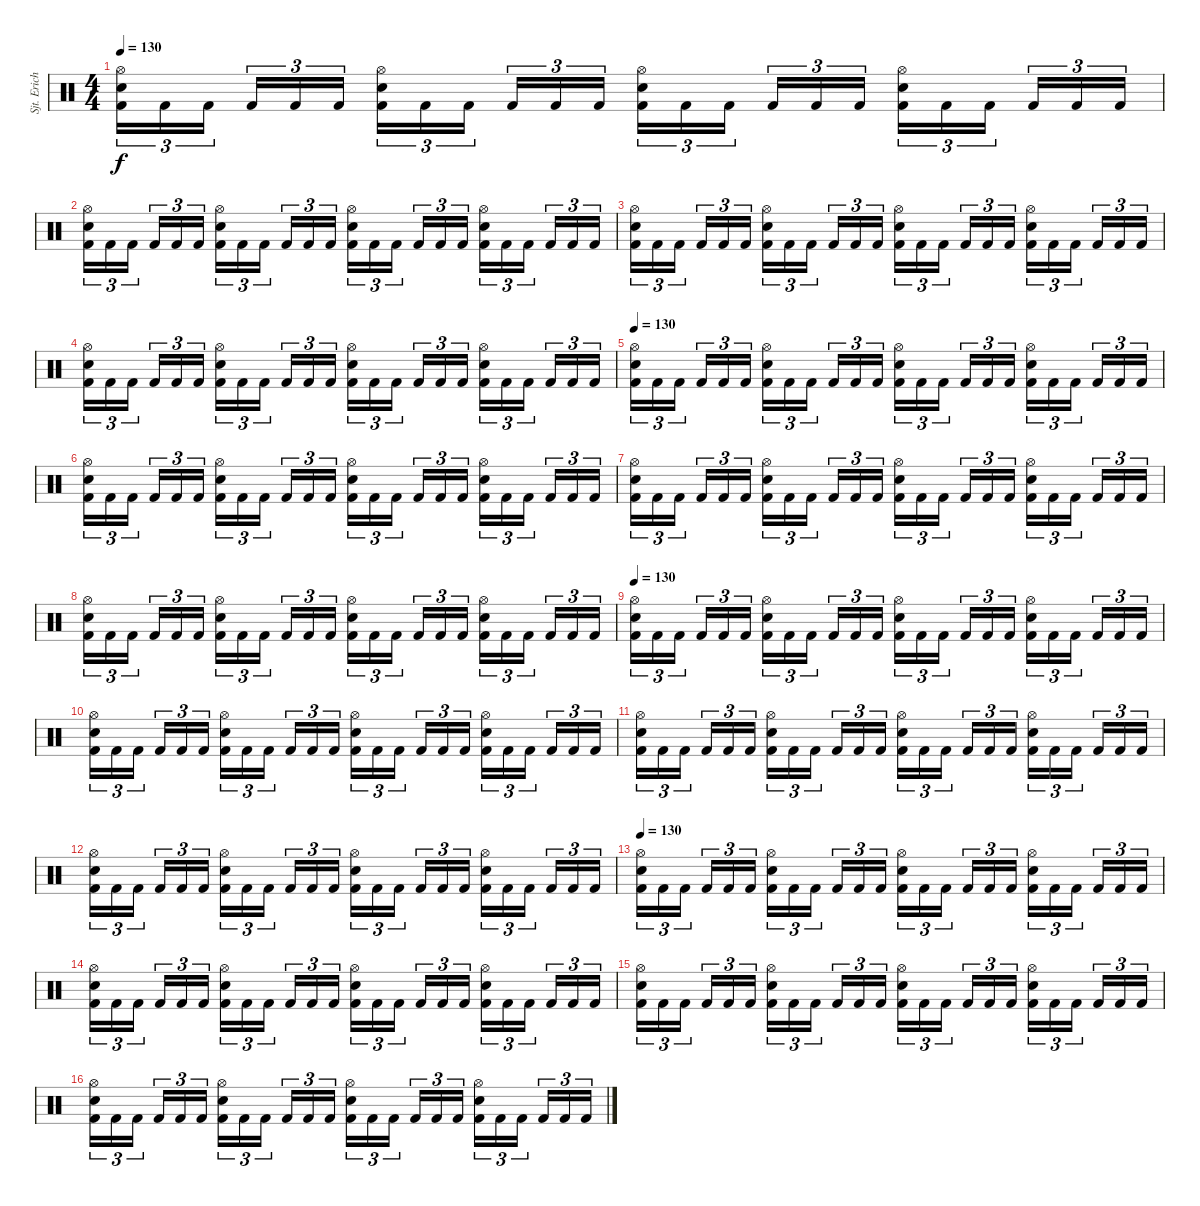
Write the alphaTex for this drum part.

\track ("Sjt. Erichsen" "Sjt. Erich") {instrument percussion}
\staff {score}
\articulation defaults
\ts (4 4)
\tempo 130
\clef neutral
\ks c
("Hi-Hat (open)" "Electric Snare (hit)" "Kick (hit) 2").16{tu (3 2) dy f} "Kick (hit) 2".16{tu (3 2)} "Kick (hit) 2".16{tu (3 2) beam splitsecondary} "Kick (hit) 2".16{tu (3 2)} "Kick (hit) 2".16{tu (3 2)} "Kick (hit) 2".16{tu (3 2)} ("Hi-Hat (open)" "Electric Snare (hit)" "Kick (hit) 2").16{tu (3 2)} "Kick (hit) 2".16{tu (3 2)} "Kick (hit) 2".16{tu (3 2) beam splitsecondary} "Kick (hit) 2".16{tu (3 2)} "Kick (hit) 2".16{tu (3 2)} "Kick (hit) 2".16{tu (3 2)} ("Hi-Hat (open)" "Electric Snare (hit)" "Kick (hit) 2").16{tu (3 2)} "Kick (hit) 2".16{tu (3 2)} "Kick (hit) 2".16{tu (3 2) beam splitsecondary} "Kick (hit) 2".16{tu (3 2)} "Kick (hit) 2".16{tu (3 2)} "Kick (hit) 2".16{tu (3 2)} ("Hi-Hat (open)" "Electric Snare (hit)" "Kick (hit) 2").16{tu (3 2)} "Kick (hit) 2".16{tu (3 2)} "Kick (hit) 2".16{tu (3 2) beam splitsecondary} "Kick (hit) 2".16{tu (3 2)} "Kick (hit) 2".16{tu (3 2)} "Kick (hit) 2".16{tu (3 2)} |
("Hi-Hat (open)" "Electric Snare (hit)" "Kick (hit) 2").16{tu (3 2)} "Kick (hit) 2".16{tu (3 2)} "Kick (hit) 2".16{tu (3 2) beam splitsecondary} "Kick (hit) 2".16{tu (3 2)} "Kick (hit) 2".16{tu (3 2)} "Kick (hit) 2".16{tu (3 2)} ("Hi-Hat (open)" "Electric Snare (hit)" "Kick (hit) 2").16{tu (3 2)} "Kick (hit) 2".16{tu (3 2)} "Kick (hit) 2".16{tu (3 2) beam splitsecondary} "Kick (hit) 2".16{tu (3 2)} "Kick (hit) 2".16{tu (3 2)} "Kick (hit) 2".16{tu (3 2)} ("Hi-Hat (open)" "Electric Snare (hit)" "Kick (hit) 2").16{tu (3 2)} "Kick (hit) 2".16{tu (3 2)} "Kick (hit) 2".16{tu (3 2) beam splitsecondary} "Kick (hit) 2".16{tu (3 2)} "Kick (hit) 2".16{tu (3 2)} "Kick (hit) 2".16{tu (3 2)} ("Hi-Hat (open)" "Electric Snare (hit)" "Kick (hit) 2").16{tu (3 2)} "Kick (hit) 2".16{tu (3 2)} "Kick (hit) 2".16{tu (3 2) beam splitsecondary} "Kick (hit) 2".16{tu (3 2)} "Kick (hit) 2".16{tu (3 2)} "Kick (hit) 2".16{tu (3 2)} |
("Hi-Hat (open)" "Electric Snare (hit)" "Kick (hit) 2").16{tu (3 2)} "Kick (hit) 2".16{tu (3 2)} "Kick (hit) 2".16{tu (3 2) beam splitsecondary} "Kick (hit) 2".16{tu (3 2)} "Kick (hit) 2".16{tu (3 2)} "Kick (hit) 2".16{tu (3 2)} ("Hi-Hat (open)" "Electric Snare (hit)" "Kick (hit) 2").16{tu (3 2)} "Kick (hit) 2".16{tu (3 2)} "Kick (hit) 2".16{tu (3 2) beam splitsecondary} "Kick (hit) 2".16{tu (3 2)} "Kick (hit) 2".16{tu (3 2)} "Kick (hit) 2".16{tu (3 2)} ("Hi-Hat (open)" "Electric Snare (hit)" "Kick (hit) 2").16{tu (3 2)} "Kick (hit) 2".16{tu (3 2)} "Kick (hit) 2".16{tu (3 2) beam splitsecondary} "Kick (hit) 2".16{tu (3 2)} "Kick (hit) 2".16{tu (3 2)} "Kick (hit) 2".16{tu (3 2)} ("Hi-Hat (open)" "Electric Snare (hit)" "Kick (hit) 2").16{tu (3 2)} "Kick (hit) 2".16{tu (3 2)} "Kick (hit) 2".16{tu (3 2) beam splitsecondary} "Kick (hit) 2".16{tu (3 2)} "Kick (hit) 2".16{tu (3 2)} "Kick (hit) 2".16{tu (3 2)} |
("Hi-Hat (open)" "Electric Snare (hit)" "Kick (hit) 2").16{tu (3 2)} "Kick (hit) 2".16{tu (3 2)} "Kick (hit) 2".16{tu (3 2) beam splitsecondary} "Kick (hit) 2".16{tu (3 2)} "Kick (hit) 2".16{tu (3 2)} "Kick (hit) 2".16{tu (3 2)} ("Hi-Hat (open)" "Electric Snare (hit)" "Kick (hit) 2").16{tu (3 2)} "Kick (hit) 2".16{tu (3 2)} "Kick (hit) 2".16{tu (3 2) beam splitsecondary} "Kick (hit) 2".16{tu (3 2)} "Kick (hit) 2".16{tu (3 2)} "Kick (hit) 2".16{tu (3 2)} ("Hi-Hat (open)" "Electric Snare (hit)" "Kick (hit) 2").16{tu (3 2)} "Kick (hit) 2".16{tu (3 2)} "Kick (hit) 2".16{tu (3 2) beam splitsecondary} "Kick (hit) 2".16{tu (3 2)} "Kick (hit) 2".16{tu (3 2)} "Kick (hit) 2".16{tu (3 2)} ("Hi-Hat (open)" "Electric Snare (hit)" "Kick (hit) 2").16{tu (3 2)} "Kick (hit) 2".16{tu (3 2)} "Kick (hit) 2".16{tu (3 2) beam splitsecondary} "Kick (hit) 2".16{tu (3 2)} "Kick (hit) 2".16{tu (3 2)} "Kick (hit) 2".16{tu (3 2)} |
\tempo 130
("Hi-Hat (open)" "Electric Snare (hit)" "Kick (hit) 2").16{tu (3 2)} "Kick (hit) 2".16{tu (3 2)} "Kick (hit) 2".16{tu (3 2) beam splitsecondary} "Kick (hit) 2".16{tu (3 2)} "Kick (hit) 2".16{tu (3 2)} "Kick (hit) 2".16{tu (3 2)} ("Hi-Hat (open)" "Electric Snare (hit)" "Kick (hit) 2").16{tu (3 2)} "Kick (hit) 2".16{tu (3 2)} "Kick (hit) 2".16{tu (3 2) beam splitsecondary} "Kick (hit) 2".16{tu (3 2)} "Kick (hit) 2".16{tu (3 2)} "Kick (hit) 2".16{tu (3 2)} ("Hi-Hat (open)" "Electric Snare (hit)" "Kick (hit) 2").16{tu (3 2)} "Kick (hit) 2".16{tu (3 2)} "Kick (hit) 2".16{tu (3 2) beam splitsecondary} "Kick (hit) 2".16{tu (3 2)} "Kick (hit) 2".16{tu (3 2)} "Kick (hit) 2".16{tu (3 2)} ("Hi-Hat (open)" "Electric Snare (hit)" "Kick (hit) 2").16{tu (3 2)} "Kick (hit) 2".16{tu (3 2)} "Kick (hit) 2".16{tu (3 2) beam splitsecondary} "Kick (hit) 2".16{tu (3 2)} "Kick (hit) 2".16{tu (3 2)} "Kick (hit) 2".16{tu (3 2)} |
("Hi-Hat (open)" "Electric Snare (hit)" "Kick (hit) 2").16{tu (3 2)} "Kick (hit) 2".16{tu (3 2)} "Kick (hit) 2".16{tu (3 2) beam splitsecondary} "Kick (hit) 2".16{tu (3 2)} "Kick (hit) 2".16{tu (3 2)} "Kick (hit) 2".16{tu (3 2)} ("Hi-Hat (open)" "Electric Snare (hit)" "Kick (hit) 2").16{tu (3 2)} "Kick (hit) 2".16{tu (3 2)} "Kick (hit) 2".16{tu (3 2) beam splitsecondary} "Kick (hit) 2".16{tu (3 2)} "Kick (hit) 2".16{tu (3 2)} "Kick (hit) 2".16{tu (3 2)} ("Hi-Hat (open)" "Electric Snare (hit)" "Kick (hit) 2").16{tu (3 2)} "Kick (hit) 2".16{tu (3 2)} "Kick (hit) 2".16{tu (3 2) beam splitsecondary} "Kick (hit) 2".16{tu (3 2)} "Kick (hit) 2".16{tu (3 2)} "Kick (hit) 2".16{tu (3 2)} ("Hi-Hat (open)" "Electric Snare (hit)" "Kick (hit) 2").16{tu (3 2)} "Kick (hit) 2".16{tu (3 2)} "Kick (hit) 2".16{tu (3 2) beam splitsecondary} "Kick (hit) 2".16{tu (3 2)} "Kick (hit) 2".16{tu (3 2)} "Kick (hit) 2".16{tu (3 2)} |
("Hi-Hat (open)" "Electric Snare (hit)" "Kick (hit) 2").16{tu (3 2)} "Kick (hit) 2".16{tu (3 2)} "Kick (hit) 2".16{tu (3 2) beam splitsecondary} "Kick (hit) 2".16{tu (3 2)} "Kick (hit) 2".16{tu (3 2)} "Kick (hit) 2".16{tu (3 2)} ("Hi-Hat (open)" "Electric Snare (hit)" "Kick (hit) 2").16{tu (3 2)} "Kick (hit) 2".16{tu (3 2)} "Kick (hit) 2".16{tu (3 2) beam splitsecondary} "Kick (hit) 2".16{tu (3 2)} "Kick (hit) 2".16{tu (3 2)} "Kick (hit) 2".16{tu (3 2)} ("Hi-Hat (open)" "Electric Snare (hit)" "Kick (hit) 2").16{tu (3 2)} "Kick (hit) 2".16{tu (3 2)} "Kick (hit) 2".16{tu (3 2) beam splitsecondary} "Kick (hit) 2".16{tu (3 2)} "Kick (hit) 2".16{tu (3 2)} "Kick (hit) 2".16{tu (3 2)} ("Hi-Hat (open)" "Electric Snare (hit)" "Kick (hit) 2").16{tu (3 2)} "Kick (hit) 2".16{tu (3 2)} "Kick (hit) 2".16{tu (3 2) beam splitsecondary} "Kick (hit) 2".16{tu (3 2)} "Kick (hit) 2".16{tu (3 2)} "Kick (hit) 2".16{tu (3 2)} |
("Hi-Hat (open)" "Electric Snare (hit)" "Kick (hit) 2").16{tu (3 2)} "Kick (hit) 2".16{tu (3 2)} "Kick (hit) 2".16{tu (3 2) beam splitsecondary} "Kick (hit) 2".16{tu (3 2)} "Kick (hit) 2".16{tu (3 2)} "Kick (hit) 2".16{tu (3 2)} ("Hi-Hat (open)" "Electric Snare (hit)" "Kick (hit) 2").16{tu (3 2)} "Kick (hit) 2".16{tu (3 2)} "Kick (hit) 2".16{tu (3 2) beam splitsecondary} "Kick (hit) 2".16{tu (3 2)} "Kick (hit) 2".16{tu (3 2)} "Kick (hit) 2".16{tu (3 2)} ("Hi-Hat (open)" "Electric Snare (hit)" "Kick (hit) 2").16{tu (3 2)} "Kick (hit) 2".16{tu (3 2)} "Kick (hit) 2".16{tu (3 2) beam splitsecondary} "Kick (hit) 2".16{tu (3 2)} "Kick (hit) 2".16{tu (3 2)} "Kick (hit) 2".16{tu (3 2)} ("Hi-Hat (open)" "Electric Snare (hit)" "Kick (hit) 2").16{tu (3 2)} "Kick (hit) 2".16{tu (3 2)} "Kick (hit) 2".16{tu (3 2) beam splitsecondary} "Kick (hit) 2".16{tu (3 2)} "Kick (hit) 2".16{tu (3 2)} "Kick (hit) 2".16{tu (3 2)} |
\tempo 130
("Hi-Hat (open)" "Electric Snare (hit)" "Kick (hit) 2").16{tu (3 2)} "Kick (hit) 2".16{tu (3 2)} "Kick (hit) 2".16{tu (3 2) beam splitsecondary} "Kick (hit) 2".16{tu (3 2)} "Kick (hit) 2".16{tu (3 2)} "Kick (hit) 2".16{tu (3 2)} ("Hi-Hat (open)" "Electric Snare (hit)" "Kick (hit) 2").16{tu (3 2)} "Kick (hit) 2".16{tu (3 2)} "Kick (hit) 2".16{tu (3 2) beam splitsecondary} "Kick (hit) 2".16{tu (3 2)} "Kick (hit) 2".16{tu (3 2)} "Kick (hit) 2".16{tu (3 2)} ("Hi-Hat (open)" "Electric Snare (hit)" "Kick (hit) 2").16{tu (3 2)} "Kick (hit) 2".16{tu (3 2)} "Kick (hit) 2".16{tu (3 2) beam splitsecondary} "Kick (hit) 2".16{tu (3 2)} "Kick (hit) 2".16{tu (3 2)} "Kick (hit) 2".16{tu (3 2)} ("Hi-Hat (open)" "Electric Snare (hit)" "Kick (hit) 2").16{tu (3 2)} "Kick (hit) 2".16{tu (3 2)} "Kick (hit) 2".16{tu (3 2) beam splitsecondary} "Kick (hit) 2".16{tu (3 2)} "Kick (hit) 2".16{tu (3 2)} "Kick (hit) 2".16{tu (3 2)} |
("Hi-Hat (open)" "Electric Snare (hit)" "Kick (hit) 2").16{tu (3 2)} "Kick (hit) 2".16{tu (3 2)} "Kick (hit) 2".16{tu (3 2) beam splitsecondary} "Kick (hit) 2".16{tu (3 2)} "Kick (hit) 2".16{tu (3 2)} "Kick (hit) 2".16{tu (3 2)} ("Hi-Hat (open)" "Electric Snare (hit)" "Kick (hit) 2").16{tu (3 2)} "Kick (hit) 2".16{tu (3 2)} "Kick (hit) 2".16{tu (3 2) beam splitsecondary} "Kick (hit) 2".16{tu (3 2)} "Kick (hit) 2".16{tu (3 2)} "Kick (hit) 2".16{tu (3 2)} ("Hi-Hat (open)" "Electric Snare (hit)" "Kick (hit) 2").16{tu (3 2)} "Kick (hit) 2".16{tu (3 2)} "Kick (hit) 2".16{tu (3 2) beam splitsecondary} "Kick (hit) 2".16{tu (3 2)} "Kick (hit) 2".16{tu (3 2)} "Kick (hit) 2".16{tu (3 2)} ("Hi-Hat (open)" "Electric Snare (hit)" "Kick (hit) 2").16{tu (3 2)} "Kick (hit) 2".16{tu (3 2)} "Kick (hit) 2".16{tu (3 2) beam splitsecondary} "Kick (hit) 2".16{tu (3 2)} "Kick (hit) 2".16{tu (3 2)} "Kick (hit) 2".16{tu (3 2)} |
("Hi-Hat (open)" "Electric Snare (hit)" "Kick (hit) 2").16{tu (3 2)} "Kick (hit) 2".16{tu (3 2)} "Kick (hit) 2".16{tu (3 2) beam splitsecondary} "Kick (hit) 2".16{tu (3 2)} "Kick (hit) 2".16{tu (3 2)} "Kick (hit) 2".16{tu (3 2)} ("Hi-Hat (open)" "Electric Snare (hit)" "Kick (hit) 2").16{tu (3 2)} "Kick (hit) 2".16{tu (3 2)} "Kick (hit) 2".16{tu (3 2) beam splitsecondary} "Kick (hit) 2".16{tu (3 2)} "Kick (hit) 2".16{tu (3 2)} "Kick (hit) 2".16{tu (3 2)} ("Hi-Hat (open)" "Electric Snare (hit)" "Kick (hit) 2").16{tu (3 2)} "Kick (hit) 2".16{tu (3 2)} "Kick (hit) 2".16{tu (3 2) beam splitsecondary} "Kick (hit) 2".16{tu (3 2)} "Kick (hit) 2".16{tu (3 2)} "Kick (hit) 2".16{tu (3 2)} ("Hi-Hat (open)" "Electric Snare (hit)" "Kick (hit) 2").16{tu (3 2)} "Kick (hit) 2".16{tu (3 2)} "Kick (hit) 2".16{tu (3 2) beam splitsecondary} "Kick (hit) 2".16{tu (3 2)} "Kick (hit) 2".16{tu (3 2)} "Kick (hit) 2".16{tu (3 2)} |
("Hi-Hat (open)" "Electric Snare (hit)" "Kick (hit) 2").16{tu (3 2)} "Kick (hit) 2".16{tu (3 2)} "Kick (hit) 2".16{tu (3 2) beam splitsecondary} "Kick (hit) 2".16{tu (3 2)} "Kick (hit) 2".16{tu (3 2)} "Kick (hit) 2".16{tu (3 2)} ("Hi-Hat (open)" "Electric Snare (hit)" "Kick (hit) 2").16{tu (3 2)} "Kick (hit) 2".16{tu (3 2)} "Kick (hit) 2".16{tu (3 2) beam splitsecondary} "Kick (hit) 2".16{tu (3 2)} "Kick (hit) 2".16{tu (3 2)} "Kick (hit) 2".16{tu (3 2)} ("Hi-Hat (open)" "Electric Snare (hit)" "Kick (hit) 2").16{tu (3 2)} "Kick (hit) 2".16{tu (3 2)} "Kick (hit) 2".16{tu (3 2) beam splitsecondary} "Kick (hit) 2".16{tu (3 2)} "Kick (hit) 2".16{tu (3 2)} "Kick (hit) 2".16{tu (3 2)} ("Hi-Hat (open)" "Electric Snare (hit)" "Kick (hit) 2").16{tu (3 2)} "Kick (hit) 2".16{tu (3 2)} "Kick (hit) 2".16{tu (3 2) beam splitsecondary} "Kick (hit) 2".16{tu (3 2)} "Kick (hit) 2".16{tu (3 2)} "Kick (hit) 2".16{tu (3 2)} |
\tempo 130
("Hi-Hat (open)" "Electric Snare (hit)" "Kick (hit) 2").16{tu (3 2)} "Kick (hit) 2".16{tu (3 2)} "Kick (hit) 2".16{tu (3 2) beam splitsecondary} "Kick (hit) 2".16{tu (3 2)} "Kick (hit) 2".16{tu (3 2)} "Kick (hit) 2".16{tu (3 2)} ("Hi-Hat (open)" "Electric Snare (hit)" "Kick (hit) 2").16{tu (3 2)} "Kick (hit) 2".16{tu (3 2)} "Kick (hit) 2".16{tu (3 2) beam splitsecondary} "Kick (hit) 2".16{tu (3 2)} "Kick (hit) 2".16{tu (3 2)} "Kick (hit) 2".16{tu (3 2)} ("Hi-Hat (open)" "Electric Snare (hit)" "Kick (hit) 2").16{tu (3 2)} "Kick (hit) 2".16{tu (3 2)} "Kick (hit) 2".16{tu (3 2) beam splitsecondary} "Kick (hit) 2".16{tu (3 2)} "Kick (hit) 2".16{tu (3 2)} "Kick (hit) 2".16{tu (3 2)} ("Hi-Hat (open)" "Electric Snare (hit)" "Kick (hit) 2").16{tu (3 2)} "Kick (hit) 2".16{tu (3 2)} "Kick (hit) 2".16{tu (3 2) beam splitsecondary} "Kick (hit) 2".16{tu (3 2)} "Kick (hit) 2".16{tu (3 2)} "Kick (hit) 2".16{tu (3 2)} |
("Hi-Hat (open)" "Electric Snare (hit)" "Kick (hit) 2").16{tu (3 2)} "Kick (hit) 2".16{tu (3 2)} "Kick (hit) 2".16{tu (3 2) beam splitsecondary} "Kick (hit) 2".16{tu (3 2)} "Kick (hit) 2".16{tu (3 2)} "Kick (hit) 2".16{tu (3 2)} ("Hi-Hat (open)" "Electric Snare (hit)" "Kick (hit) 2").16{tu (3 2)} "Kick (hit) 2".16{tu (3 2)} "Kick (hit) 2".16{tu (3 2) beam splitsecondary} "Kick (hit) 2".16{tu (3 2)} "Kick (hit) 2".16{tu (3 2)} "Kick (hit) 2".16{tu (3 2)} ("Hi-Hat (open)" "Electric Snare (hit)" "Kick (hit) 2").16{tu (3 2)} "Kick (hit) 2".16{tu (3 2)} "Kick (hit) 2".16{tu (3 2) beam splitsecondary} "Kick (hit) 2".16{tu (3 2)} "Kick (hit) 2".16{tu (3 2)} "Kick (hit) 2".16{tu (3 2)} ("Hi-Hat (open)" "Electric Snare (hit)" "Kick (hit) 2").16{tu (3 2)} "Kick (hit) 2".16{tu (3 2)} "Kick (hit) 2".16{tu (3 2) beam splitsecondary} "Kick (hit) 2".16{tu (3 2)} "Kick (hit) 2".16{tu (3 2)} "Kick (hit) 2".16{tu (3 2)} |
("Hi-Hat (open)" "Electric Snare (hit)" "Kick (hit) 2").16{tu (3 2)} "Kick (hit) 2".16{tu (3 2)} "Kick (hit) 2".16{tu (3 2) beam splitsecondary} "Kick (hit) 2".16{tu (3 2)} "Kick (hit) 2".16{tu (3 2)} "Kick (hit) 2".16{tu (3 2)} ("Hi-Hat (open)" "Electric Snare (hit)" "Kick (hit) 2").16{tu (3 2)} "Kick (hit) 2".16{tu (3 2)} "Kick (hit) 2".16{tu (3 2) beam splitsecondary} "Kick (hit) 2".16{tu (3 2)} "Kick (hit) 2".16{tu (3 2)} "Kick (hit) 2".16{tu (3 2)} ("Hi-Hat (open)" "Electric Snare (hit)" "Kick (hit) 2").16{tu (3 2)} "Kick (hit) 2".16{tu (3 2)} "Kick (hit) 2".16{tu (3 2) beam splitsecondary} "Kick (hit) 2".16{tu (3 2)} "Kick (hit) 2".16{tu (3 2)} "Kick (hit) 2".16{tu (3 2)} ("Hi-Hat (open)" "Electric Snare (hit)" "Kick (hit) 2").16{tu (3 2)} "Kick (hit) 2".16{tu (3 2)} "Kick (hit) 2".16{tu (3 2) beam splitsecondary} "Kick (hit) 2".16{tu (3 2)} "Kick (hit) 2".16{tu (3 2)} "Kick (hit) 2".16{tu (3 2)} |
("Hi-Hat (open)" "Electric Snare (hit)" "Kick (hit) 2").16{tu (3 2)} "Kick (hit) 2".16{tu (3 2)} "Kick (hit) 2".16{tu (3 2) beam splitsecondary} "Kick (hit) 2".16{tu (3 2)} "Kick (hit) 2".16{tu (3 2)} "Kick (hit) 2".16{tu (3 2)} ("Hi-Hat (open)" "Electric Snare (hit)" "Kick (hit) 2").16{tu (3 2)} "Kick (hit) 2".16{tu (3 2)} "Kick (hit) 2".16{tu (3 2) beam splitsecondary} "Kick (hit) 2".16{tu (3 2)} "Kick (hit) 2".16{tu (3 2)} "Kick (hit) 2".16{tu (3 2)} ("Hi-Hat (open)" "Electric Snare (hit)" "Kick (hit) 2").16{tu (3 2)} "Kick (hit) 2".16{tu (3 2)} "Kick (hit) 2".16{tu (3 2) beam splitsecondary} "Kick (hit) 2".16{tu (3 2)} "Kick (hit) 2".16{tu (3 2)} "Kick (hit) 2".16{tu (3 2)} ("Hi-Hat (open)" "Electric Snare (hit)" "Kick (hit) 2").16{tu (3 2)} "Kick (hit) 2".16{tu (3 2)} "Kick (hit) 2".16{tu (3 2) beam splitsecondary} "Kick (hit) 2".16{tu (3 2)} "Kick (hit) 2".16{tu (3 2)} "Kick (hit) 2".16{tu (3 2)}
